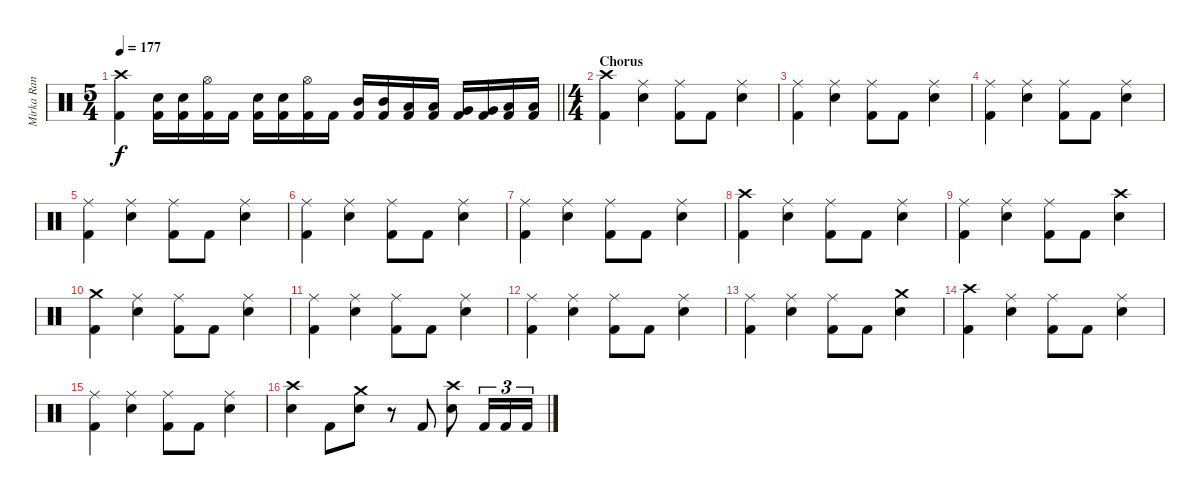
\track (" Mirka Rantanen" " Mirka Ran") {instrument percussion}
\staff {score}
\articulation defaults
\ts (5 4)
\tempo 177
\clef neutral
\barLineRight lightlight
\ks c
("Crash high (hit)" "Kick (hit) 2").4{dy f} ("Electric Snare (hit)" "Kick (hit) 2").16 ("Electric Snare (hit)" "Kick (hit) 2").16 ("Hi-Hat (open)" "Kick (hit) 2").16 "Kick (hit) 2".16 ("Electric Snare (hit)" "Kick (hit) 2").16 ("Electric Snare (hit)" "Kick (hit) 2").16 ("Hi-Hat (open)" "Kick (hit) 2").16 "Kick (hit) 2".16 ("Mid Tom (hit)" "Kick (hit) 2").16 ("Mid Tom (hit)" "Kick (hit) 2").16 ("Low Tom (hit)" "Kick (hit) 2").16 ("Low Tom (hit)" "Kick (hit) 2").16 ("Very Low Tom (hit)" "Kick (hit) 2").16 ("Very Low Tom (hit)" "Kick (hit) 2").16 ("Low Floor Tom (hit)" "Kick (hit) 2").16 ("Low Floor Tom (hit)" "Kick (hit) 2").16 |
\ts (4 4)
\section ("" "Chorus")
("Crash high (hit)" "Kick (hit) 2").4 ("Ride (middle)" "Electric Snare (hit)").4 ("Ride (middle)" "Kick (hit) 2").8 "Kick (hit) 2".8 ("Ride (middle)" "Electric Snare (hit)").4 |
("Ride (middle)" "Kick (hit) 2").4 ("Ride (middle)" "Electric Snare (hit)").4 ("Ride (middle)" "Kick (hit) 2").8 "Kick (hit) 2".8 ("Ride (middle)" "Electric Snare (hit)").4 |
("Ride (middle)" "Kick (hit) 2").4 ("Ride (middle)" "Electric Snare (hit)").4 ("Ride (middle)" "Kick (hit) 2").8 "Kick (hit) 2".8 ("Ride (middle)" "Electric Snare (hit)").4 |
("Ride (middle)" "Kick (hit) 2").4 ("Ride (middle)" "Electric Snare (hit)").4 ("Ride (middle)" "Kick (hit) 2").8 "Kick (hit) 2".8 ("Ride (middle)" "Electric Snare (hit)").4 |
("Ride (middle)" "Kick (hit) 2").4 ("Ride (middle)" "Electric Snare (hit)").4 ("Ride (middle)" "Kick (hit) 2").8 "Kick (hit) 2".8 ("Ride (middle)" "Electric Snare (hit)").4 |
("Ride (middle)" "Kick (hit) 2").4 ("Ride (middle)" "Electric Snare (hit)").4 ("Ride (middle)" "Kick (hit) 2").8 "Kick (hit) 2".8 ("Ride (middle)" "Electric Snare (hit)").4 |
("Crash high (hit)" "Kick (hit) 2").4 ("Ride (middle)" "Electric Snare (hit)").4 ("Ride (middle)" "Kick (hit) 2").8 "Kick (hit) 2".8 ("Ride (middle)" "Electric Snare (hit)").4 |
("Ride (middle)" "Kick (hit) 2").4 ("Ride (middle)" "Electric Snare (hit)").4 ("Ride (middle)" "Kick (hit) 2").8 "Kick (hit) 2".8 ("Crash high (hit)" "Electric Snare (hit)").4 |
("Crash medium (hit)" "Kick (hit) 2").4 ("Ride (middle)" "Electric Snare (hit)").4 ("Ride (middle)" "Kick (hit) 2").8 "Kick (hit) 2".8 ("Ride (middle)" "Electric Snare (hit)").4 |
("Ride (middle)" "Kick (hit) 2").4 ("Ride (middle)" "Electric Snare (hit)").4 ("Ride (middle)" "Kick (hit) 2").8 "Kick (hit) 2".8 ("Ride (middle)" "Electric Snare (hit)").4 |
("Ride (middle)" "Kick (hit) 2").4 ("Ride (middle)" "Electric Snare (hit)").4 ("Ride (middle)" "Kick (hit) 2").8 "Kick (hit) 2".8 ("Ride (middle)" "Electric Snare (hit)").4 |
("Ride (middle)" "Kick (hit) 2").4 ("Ride (middle)" "Electric Snare (hit)").4 ("Ride (middle)" "Kick (hit) 2").8 "Kick (hit) 2".8 ("Crash medium (hit)" "Electric Snare (hit)").4 |
("Crash high (hit)" "Kick (hit) 2").4 ("Ride (middle)" "Electric Snare (hit)").4 ("Ride (middle)" "Kick (hit) 2").8 "Kick (hit) 2".8 ("Ride (middle)" "Electric Snare (hit)").4 |
("Ride (middle)" "Kick (hit) 2").4 ("Ride (middle)" "Electric Snare (hit)").4 ("Ride (middle)" "Kick (hit) 2").8 "Kick (hit) 2".8 ("Ride (middle)" "Electric Snare (hit)").4 |
("Crash high (hit)" "Electric Snare (hit)").4 "Kick (hit) 2".8 ("Crash medium (hit)" "Electric Snare (hit)").8 r.8 "Kick (hit) 2".8 ("Crash high (hit)" "Electric Snare (hit)").8 "Kick (hit) 2".16{tu (3 2)} "Kick (hit) 2".16{tu (3 2)} "Kick (hit) 2".16{tu (3 2)}
